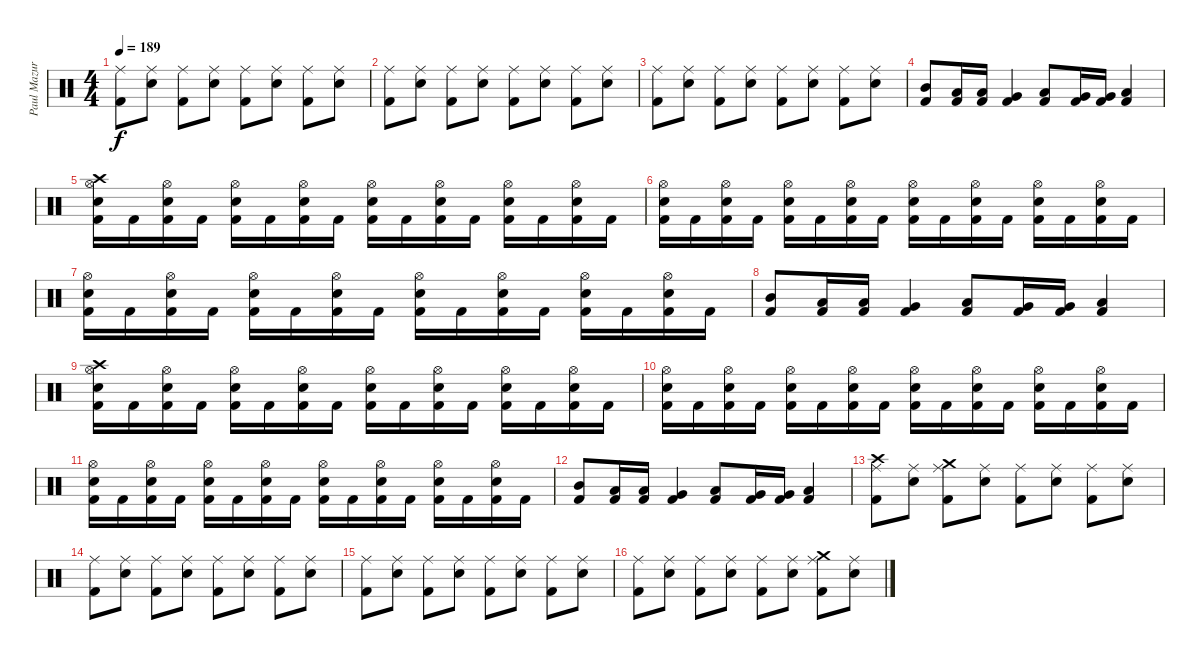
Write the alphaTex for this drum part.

\track ("Paul Mazurkevitch" "Paul Mazur") {instrument percussion}
\staff {score}
\articulation defaults
\ts (4 4)
\tempo 189
\clef neutral
\ks c
("Ride (middle)" "Kick (hit) 2").8{dy f} ("Ride (middle)" "Electric Snare (hit)").8 ("Ride (middle)" "Kick (hit) 2").8 ("Ride (middle)" "Electric Snare (hit)").8 ("Ride (middle)" "Kick (hit) 2").8 ("Ride (middle)" "Electric Snare (hit)").8 ("Ride (middle)" "Kick (hit) 2").8 ("Ride (middle)" "Electric Snare (hit)").8 |
("Ride (middle)" "Kick (hit) 2").8 ("Ride (middle)" "Electric Snare (hit)").8 ("Ride (middle)" "Kick (hit) 2").8 ("Ride (middle)" "Electric Snare (hit)").8 ("Ride (middle)" "Kick (hit) 2").8 ("Ride (middle)" "Electric Snare (hit)").8 ("Ride (middle)" "Kick (hit) 2").8 ("Ride (middle)" "Electric Snare (hit)").8 |
("Ride (middle)" "Kick (hit) 2").8 ("Ride (middle)" "Electric Snare (hit)").8 ("Ride (middle)" "Kick (hit) 2").8 ("Ride (middle)" "Electric Snare (hit)").8 ("Ride (middle)" "Kick (hit) 2").8 ("Ride (middle)" "Electric Snare (hit)").8 ("Ride (middle)" "Kick (hit) 2").8 ("Ride (middle)" "Electric Snare (hit)").8 |
("Mid Tom (hit)" "Kick (hit) 2").8 ("Low Tom (hit)" "Kick (hit) 2").16 ("Low Tom (hit)" "Kick (hit) 2").16 ("Very Low Tom (hit)" "Kick (hit) 2").4 ("Low Tom (hit)" "Kick (hit) 2").8 ("Very Low Tom (hit)" "Kick (hit) 2").16 ("Very Low Tom (hit)" "Kick (hit) 2").16 ("Low Floor Tom (hit)" "Kick (hit) 2").4 |
("Crash high (hit)" "Hi-Hat (open)" "Electric Snare (hit)" "Kick (hit) 2").16 "Kick (hit) 2".16 ("Hi-Hat (open)" "Electric Snare (hit)" "Kick (hit) 2").16 "Kick (hit) 2".16 ("Hi-Hat (open)" "Electric Snare (hit)" "Kick (hit) 2").16 "Kick (hit) 2".16 ("Hi-Hat (open)" "Electric Snare (hit)" "Kick (hit) 2").16 "Kick (hit) 2".16 ("Hi-Hat (open)" "Electric Snare (hit)" "Kick (hit) 2").16 "Kick (hit) 2".16 ("Hi-Hat (open)" "Electric Snare (hit)" "Kick (hit) 2").16 "Kick (hit) 2".16 ("Hi-Hat (open)" "Electric Snare (hit)" "Kick (hit) 2").16 "Kick (hit) 2".16 ("Hi-Hat (open)" "Electric Snare (hit)" "Kick (hit) 2").16 "Kick (hit) 2".16 |
("Hi-Hat (open)" "Electric Snare (hit)" "Kick (hit) 2").16 "Kick (hit) 2".16 ("Hi-Hat (open)" "Electric Snare (hit)" "Kick (hit) 2").16 "Kick (hit) 2".16 ("Hi-Hat (open)" "Electric Snare (hit)" "Kick (hit) 2").16 "Kick (hit) 2".16 ("Hi-Hat (open)" "Electric Snare (hit)" "Kick (hit) 2").16 "Kick (hit) 2".16 ("Hi-Hat (open)" "Electric Snare (hit)" "Kick (hit) 2").16 "Kick (hit) 2".16 ("Hi-Hat (open)" "Electric Snare (hit)" "Kick (hit) 2").16 "Kick (hit) 2".16 ("Hi-Hat (open)" "Electric Snare (hit)" "Kick (hit) 2").16 "Kick (hit) 2".16 ("Hi-Hat (open)" "Electric Snare (hit)" "Kick (hit) 2").16 "Kick (hit) 2".16 |
("Hi-Hat (open)" "Electric Snare (hit)" "Kick (hit) 2").16 "Kick (hit) 2".16 ("Hi-Hat (open)" "Electric Snare (hit)" "Kick (hit) 2").16 "Kick (hit) 2".16 ("Hi-Hat (open)" "Electric Snare (hit)" "Kick (hit) 2").16 "Kick (hit) 2".16 ("Hi-Hat (open)" "Electric Snare (hit)" "Kick (hit) 2").16 "Kick (hit) 2".16 ("Hi-Hat (open)" "Electric Snare (hit)" "Kick (hit) 2").16 "Kick (hit) 2".16 ("Hi-Hat (open)" "Electric Snare (hit)" "Kick (hit) 2").16 "Kick (hit) 2".16 ("Hi-Hat (open)" "Electric Snare (hit)" "Kick (hit) 2").16 "Kick (hit) 2".16 ("Hi-Hat (open)" "Electric Snare (hit)" "Kick (hit) 2").16 "Kick (hit) 2".16 |
("Mid Tom (hit)" "Kick (hit) 2").8 ("Low Tom (hit)" "Kick (hit) 2").16 ("Low Tom (hit)" "Kick (hit) 2").16 ("Very Low Tom (hit)" "Kick (hit) 2").4 ("Low Tom (hit)" "Kick (hit) 2").8 ("Very Low Tom (hit)" "Kick (hit) 2").16 ("Very Low Tom (hit)" "Kick (hit) 2").16 ("Low Floor Tom (hit)" "Kick (hit) 2").4 |
("Crash high (hit)" "Hi-Hat (open)" "Electric Snare (hit)" "Kick (hit) 2").16 "Kick (hit) 2".16 ("Hi-Hat (open)" "Electric Snare (hit)" "Kick (hit) 2").16 "Kick (hit) 2".16 ("Hi-Hat (open)" "Electric Snare (hit)" "Kick (hit) 2").16 "Kick (hit) 2".16 ("Hi-Hat (open)" "Electric Snare (hit)" "Kick (hit) 2").16 "Kick (hit) 2".16 ("Hi-Hat (open)" "Electric Snare (hit)" "Kick (hit) 2").16 "Kick (hit) 2".16 ("Hi-Hat (open)" "Electric Snare (hit)" "Kick (hit) 2").16 "Kick (hit) 2".16 ("Hi-Hat (open)" "Electric Snare (hit)" "Kick (hit) 2").16 "Kick (hit) 2".16 ("Hi-Hat (open)" "Electric Snare (hit)" "Kick (hit) 2").16 "Kick (hit) 2".16 |
("Hi-Hat (open)" "Electric Snare (hit)" "Kick (hit) 2").16 "Kick (hit) 2".16 ("Hi-Hat (open)" "Electric Snare (hit)" "Kick (hit) 2").16 "Kick (hit) 2".16 ("Hi-Hat (open)" "Electric Snare (hit)" "Kick (hit) 2").16 "Kick (hit) 2".16 ("Hi-Hat (open)" "Electric Snare (hit)" "Kick (hit) 2").16 "Kick (hit) 2".16 ("Hi-Hat (open)" "Electric Snare (hit)" "Kick (hit) 2").16 "Kick (hit) 2".16 ("Hi-Hat (open)" "Electric Snare (hit)" "Kick (hit) 2").16 "Kick (hit) 2".16 ("Hi-Hat (open)" "Electric Snare (hit)" "Kick (hit) 2").16 "Kick (hit) 2".16 ("Hi-Hat (open)" "Electric Snare (hit)" "Kick (hit) 2").16 "Kick (hit) 2".16 |
("Hi-Hat (open)" "Electric Snare (hit)" "Kick (hit) 2").16 "Kick (hit) 2".16 ("Hi-Hat (open)" "Electric Snare (hit)" "Kick (hit) 2").16 "Kick (hit) 2".16 ("Hi-Hat (open)" "Electric Snare (hit)" "Kick (hit) 2").16 "Kick (hit) 2".16 ("Hi-Hat (open)" "Electric Snare (hit)" "Kick (hit) 2").16 "Kick (hit) 2".16 ("Hi-Hat (open)" "Electric Snare (hit)" "Kick (hit) 2").16 "Kick (hit) 2".16 ("Hi-Hat (open)" "Electric Snare (hit)" "Kick (hit) 2").16 "Kick (hit) 2".16 ("Hi-Hat (open)" "Electric Snare (hit)" "Kick (hit) 2").16 "Kick (hit) 2".16 ("Hi-Hat (open)" "Electric Snare (hit)" "Kick (hit) 2").16 "Kick (hit) 2".16 |
("Mid Tom (hit)" "Kick (hit) 2").8 ("Low Tom (hit)" "Kick (hit) 2").16 ("Low Tom (hit)" "Kick (hit) 2").16 ("Very Low Tom (hit)" "Kick (hit) 2").4 ("Low Tom (hit)" "Kick (hit) 2").8 ("Very Low Tom (hit)" "Kick (hit) 2").16 ("Very Low Tom (hit)" "Kick (hit) 2").16 ("Low Floor Tom (hit)" "Kick (hit) 2").4 |
("Crash high (hit)" "Ride (middle)" "Kick (hit) 2").8 ("Ride (middle)" "Electric Snare (hit)").8 ("Crash medium (hit)" "Ride (middle)" "Kick (hit) 2").8 ("Ride (middle)" "Electric Snare (hit)").8 ("Ride (middle)" "Kick (hit) 2").8 ("Ride (middle)" "Electric Snare (hit)").8 ("Ride (middle)" "Kick (hit) 2").8 ("Ride (middle)" "Electric Snare (hit)").8 |
("Ride (middle)" "Kick (hit) 2").8 ("Ride (middle)" "Electric Snare (hit)").8 ("Ride (middle)" "Kick (hit) 2").8 ("Ride (middle)" "Electric Snare (hit)").8 ("Ride (middle)" "Kick (hit) 2").8 ("Ride (middle)" "Electric Snare (hit)").8 ("Ride (middle)" "Kick (hit) 2").8 ("Ride (middle)" "Electric Snare (hit)").8 |
("Ride (middle)" "Kick (hit) 2").8 ("Ride (middle)" "Electric Snare (hit)").8 ("Ride (middle)" "Kick (hit) 2").8 ("Ride (middle)" "Electric Snare (hit)").8 ("Ride (middle)" "Kick (hit) 2").8 ("Ride (middle)" "Electric Snare (hit)").8 ("Ride (middle)" "Kick (hit) 2").8 ("Ride (middle)" "Electric Snare (hit)").8 |
("Ride (middle)" "Kick (hit) 2").8 ("Ride (middle)" "Electric Snare (hit)").8 ("Ride (middle)" "Kick (hit) 2").8 ("Ride (middle)" "Electric Snare (hit)").8 ("Ride (middle)" "Kick (hit) 2").8 ("Ride (middle)" "Electric Snare (hit)").8 ("Crash medium (hit)" "Ride (middle)" "Kick (hit) 2").8 ("Ride (middle)" "Electric Snare (hit)").8
